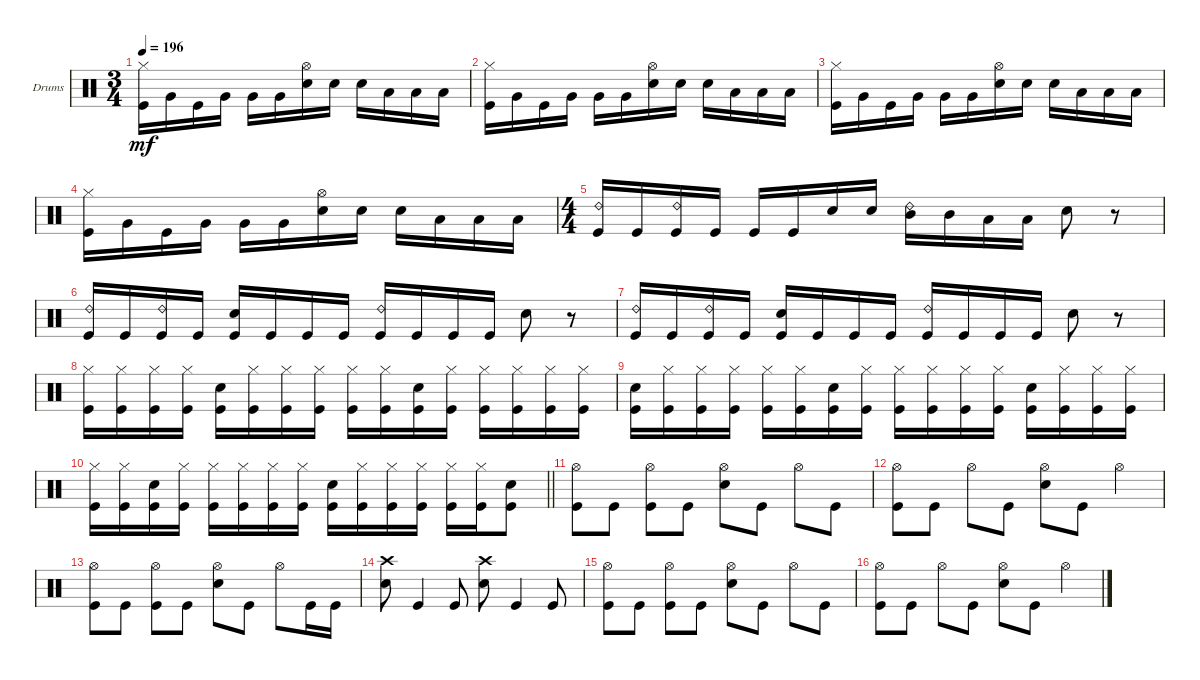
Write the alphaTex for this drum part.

\defaultSystemsLayout 4
\bracketExtendMode groupsimilarinstruments
\firstSystemTrackNameOrientation horizontal
\otherSystemsTrackNameOrientation horizontal
\track ("Drumkit" "Drums") {instrument percussion}
\staff {score}
\articulation defaults
\ts (3 4)
\tempo 196
\clef neutral
\ks c
("Kick (hit)" "Hi-Hat (closed)").16{dy mf} "Very Low Tom (hit)".16 "Kick (hit)".16 "Very Low Tom (hit)".16 "Very Low Tom (hit)".16 "Very Low Tom (hit)".16 ("Snare (hit) 2" "Hi-Hat (open)").16 "Snare (hit) 2".16 "Snare (hit) 2".16 "Low Tom (hit)".16 "Low Tom (hit)".16 "Low Tom (hit)".16 |
\scale
0.333333 ("Kick (hit)" "Hi-Hat (closed)").16 "Very Low Tom (hit)".16 "Kick (hit)".16 "Very Low Tom (hit)".16 "Very Low Tom (hit)".16 "Very Low Tom (hit)".16 ("Snare (hit) 2" "Hi-Hat (open)").16 "Snare (hit) 2".16 "Snare (hit) 2".16 "Low Tom (hit)".16 "Low Tom (hit)".16 "Low Tom (hit)".16 |
("Kick (hit)" "Hi-Hat (closed)").16 "Very Low Tom (hit)".16 "Kick (hit)".16 "Very Low Tom (hit)".16 "Very Low Tom (hit)".16 "Very Low Tom (hit)".16 ("Snare (hit) 2" "Hi-Hat (open)").16 "Snare (hit) 2".16 "Snare (hit) 2".16 "Low Tom (hit)".16 "Low Tom (hit)".16 "Low Tom (hit)".16 |
\scale
0.333333 ("Kick (hit)" "Hi-Hat (closed)").16 "Very Low Tom (hit)".16 "Kick (hit)".16 "Very Low Tom (hit)".16 "Very Low Tom (hit)".16 "Very Low Tom (hit)".16 ("Snare (hit) 2" "Hi-Hat (open)").16 "Snare (hit) 2".16 "Snare (hit) 2".16 "Low Tom (hit)".16 "Low Tom (hit)".16 "Low Tom (hit)".16 |
\ts (4 4)
\scale
0.333333 ("Kick (hit)" "Ride (bell) 2").16 "Kick (hit)".16 ("Kick (hit)" "Ride (bell) 2").16 "Kick (hit)".16 "Kick (hit)".16 "Kick (hit)".16 "Snare (hit) 2".16 "Snare (hit) 2".16 ("Mid Tom (hit)" "Ride (bell) 2").16 "Mid Tom (hit)".16 "Low Tom (hit)".16 "Low Tom (hit)".16 "Snare (hit) 2".8 r.8 |
\scale
0.333333 ("Kick (hit)" "Ride (bell) 2").16 "Kick (hit)".16 ("Kick (hit)" "Ride (bell) 2").16 "Kick (hit)".16 ("Kick (hit)" "Snare (hit) 2").16 "Kick (hit)".16 "Kick (hit)".16 "Kick (hit)".16 ("Kick (hit)" "Ride (bell) 2").16 "Kick (hit)".16 "Kick (hit)".16 "Kick (hit)".16 "Snare (hit) 2".8 r.8 |
\scale
0.333333 ("Kick (hit)" "Ride (bell) 2").16 "Kick (hit)".16 ("Kick (hit)" "Ride (bell) 2").16 "Kick (hit)".16 ("Kick (hit)" "Snare (hit) 2").16 "Kick (hit)".16 "Kick (hit)".16 "Kick (hit)".16 ("Kick (hit)" "Ride (bell) 2").16 "Kick (hit)".16 "Kick (hit)".16 "Kick (hit)".16 "Snare (hit) 2".8 r.8 |
\scale
0.333333 ("Kick (hit)" "Hi-Hat (closed)").16 ("Kick (hit)" "Hi-Hat (closed)").16 ("Kick (hit)" "Hi-Hat (closed)").16 ("Kick (hit)" "Hi-Hat (closed)").16 ("Snare (hit) 2" "Kick (hit)").16 ("Kick (hit)" "Hi-Hat (closed)").16 ("Kick (hit)" "Hi-Hat (closed)").16 ("Kick (hit)" "Hi-Hat (closed)").16 ("Kick (hit)" "Hi-Hat (closed)").16 ("Kick (hit)" "Hi-Hat (closed)").16 ("Snare (hit) 2" "Kick (hit)").16 ("Kick (hit)" "Hi-Hat (closed)").16 ("Kick (hit)" "Hi-Hat (closed)").16 ("Kick (hit)" "Hi-Hat (closed)").16 ("Kick (hit)" "Hi-Hat (closed)").16 ("Kick (hit)" "Hi-Hat (closed)").16 |
("Snare (hit) 2" "Kick (hit)").16 ("Kick (hit)" "Hi-Hat (closed)").16 ("Kick (hit)" "Hi-Hat (closed)").16 ("Kick (hit)" "Hi-Hat (closed)").16 ("Kick (hit)" "Hi-Hat (closed)").16 ("Kick (hit)" "Hi-Hat (closed)").16 ("Snare (hit) 2" "Kick (hit)").16 ("Kick (hit)" "Hi-Hat (closed)").16 ("Kick (hit)" "Hi-Hat (closed)").16 ("Kick (hit)" "Hi-Hat (closed)").16 ("Kick (hit)" "Hi-Hat (closed)").16 ("Kick (hit)" "Hi-Hat (closed)").16 ("Snare (hit) 2" "Kick (hit)").16 ("Kick (hit)" "Hi-Hat (closed)").16 ("Kick (hit)" "Hi-Hat (closed)").16 ("Kick (hit)" "Hi-Hat (closed)").16 |
\barLineRight lightlight
("Kick (hit)" "Hi-Hat (closed)").16 ("Kick (hit)" "Hi-Hat (closed)").16 ("Snare (hit) 2" "Kick (hit)").16 ("Kick (hit)" "Hi-Hat (closed)").16 ("Kick (hit)" "Hi-Hat (closed)").16 ("Kick (hit)" "Hi-Hat (closed)").16 ("Kick (hit)" "Hi-Hat (closed)").16 ("Kick (hit)" "Hi-Hat (closed)").16 ("Snare (hit) 2" "Kick (hit)").16 ("Kick (hit)" "Hi-Hat (closed)").16 ("Kick (hit)" "Hi-Hat (closed)").16 ("Kick (hit)" "Hi-Hat (closed)").16 ("Kick (hit)" "Hi-Hat (closed)").16 ("Kick (hit)" "Hi-Hat (closed)").16 ("Snare (hit) 2" "Kick (hit)").8 |
("Kick (hit)" "Hi-Hat (open)").8 "Kick (hit)".8 ("Kick (hit)" "Hi-Hat (open)").8 "Kick (hit)".8 ("Snare (hit) 2" "Hi-Hat (open)").8 "Kick (hit)".8 "Hi-Hat (open)".8 "Kick (hit)".8 |
("Kick (hit)" "Hi-Hat (open)").8 "Kick (hit)".8 "Hi-Hat (open)".8 "Kick (hit)".8 ("Snare (hit) 2" "Hi-Hat (open)").8 "Kick (hit)".8 "Hi-Hat (open)".4 |
("Kick (hit)" "Hi-Hat (open)").8 "Kick (hit)".8 ("Kick (hit)" "Hi-Hat (open)").8 "Kick (hit)".8 ("Snare (hit) 2" "Hi-Hat (open)").8 "Kick (hit)".8 "Hi-Hat (open)".8 "Kick (hit)".16 "Kick (hit)".16 |
("Snare (hit) 2" "Crash high (hit)").8 "Kick (hit)".4 "Kick (hit)".8 ("Snare (hit) 2" "Crash high (hit)").8 "Kick (hit)".4 "Kick (hit)".8 |
("Kick (hit)" "Hi-Hat (open)").8 "Kick (hit)".8 ("Kick (hit)" "Hi-Hat (open)").8 "Kick (hit)".8 ("Snare (hit) 2" "Hi-Hat (open)").8 "Kick (hit)".8 "Hi-Hat (open)".8 "Kick (hit)".8 |
("Kick (hit)" "Hi-Hat (open)").8 "Kick (hit)".8 "Hi-Hat (open)".8 "Kick (hit)".8 ("Snare (hit) 2" "Hi-Hat (open)").8 "Kick (hit)".8 "Hi-Hat (open)".4
